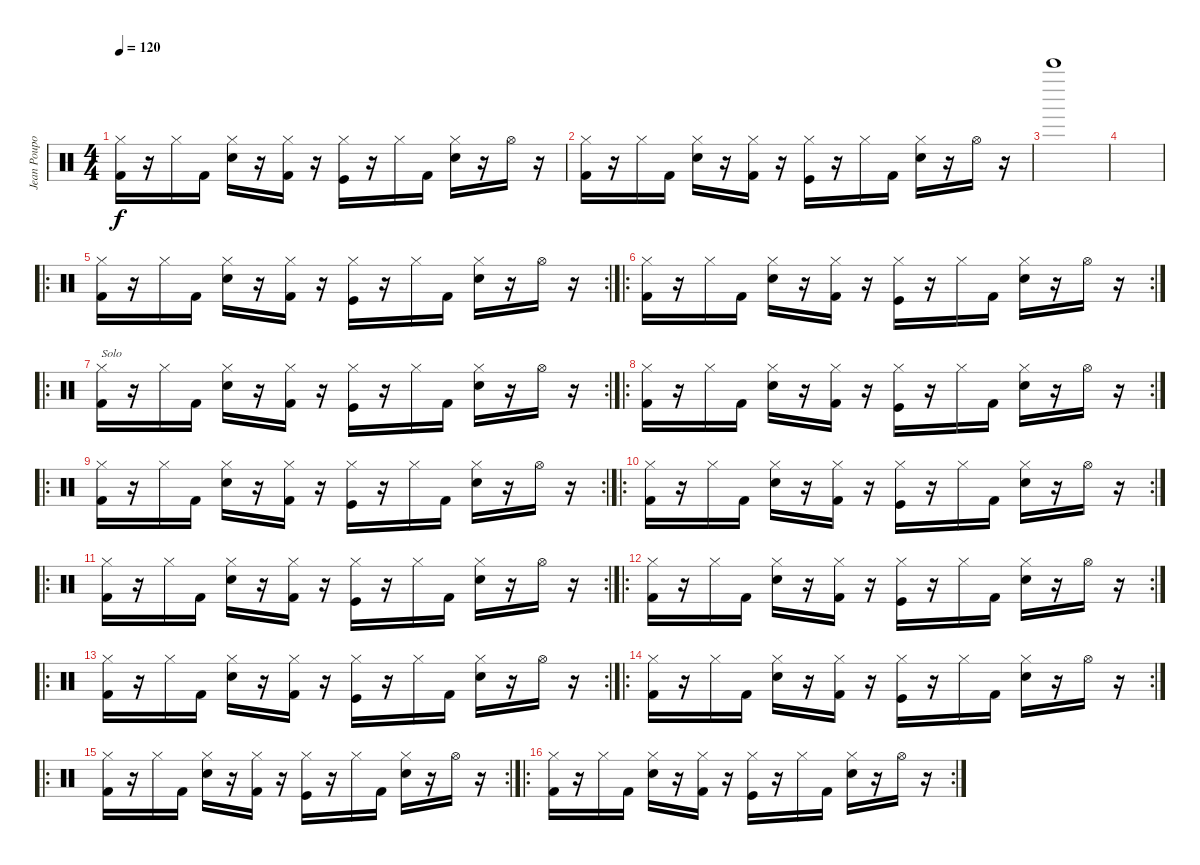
\track ("Jean Poupoutich" "Jean Poupo") {instrument percussion}
\staff {score}
\articulation defaults
\ts (4 4)
\tempo 120
\clef neutral
\ks c
("Hi-Hat (closed)" "Kick (hit) 2").16{dy f} r.16 "Hi-Hat (closed)".16 "Kick (hit) 2".16 ("Hi-Hat (closed)" "Snare (hit) 2").16 r.16 ("Hi-Hat (closed)" "Kick (hit) 2").16 r.16 ("Hi-Hat (closed)" "Kick (hit)").16 r.16 "Hi-Hat (closed)".16 "Kick (hit) 2".16 ("Hi-Hat (closed)" "Snare (hit) 2").16 r.16 "Hi-Hat (open)".16 r.16 |
("Hi-Hat (closed)" "Kick (hit) 2").16 r.16 "Hi-Hat (closed)".16 "Kick (hit) 2".16 ("Hi-Hat (closed)" "Snare (hit) 2").16 r.16 ("Hi-Hat (closed)" "Kick (hit) 2").16 r.16 ("Hi-Hat (closed)" "Kick (hit)").16 r.16 "Hi-Hat (closed)".16 "Kick (hit) 2".16 ("Hi-Hat (closed)" "Snare (hit) 2").16 r.16 "Hi-Hat (open)".16 r.16 |
"Bell Tree (hit)".1 |
|
\ro
\rc 2
("Hi-Hat (closed)" "Kick (hit) 2").16 r.16 "Hi-Hat (closed)".16 "Kick (hit) 2".16 ("Hi-Hat (closed)" "Snare (hit) 2").16 r.16 ("Hi-Hat (closed)" "Kick (hit) 2").16 r.16 ("Hi-Hat (closed)" "Kick (hit)").16 r.16 "Hi-Hat (closed)".16 "Kick (hit) 2".16 ("Hi-Hat (closed)" "Snare (hit) 2").16 r.16 "Hi-Hat (open)".16 r.16 |
\ro
\rc 2
("Hi-Hat (closed)" "Kick (hit) 2").16 r.16 "Hi-Hat (closed)".16 "Kick (hit) 2".16 ("Hi-Hat (closed)" "Snare (hit) 2").16 r.16 ("Hi-Hat (closed)" "Kick (hit) 2").16 r.16 ("Hi-Hat (closed)" "Kick (hit)").16 r.16 "Hi-Hat (closed)".16 "Kick (hit) 2".16 ("Hi-Hat (closed)" "Snare (hit) 2").16 r.16 "Hi-Hat (open)".16 r.16 |
\ro
\rc 2
("Hi-Hat (closed)" "Kick (hit) 2").16{txt "Solo"} r.16 "Hi-Hat (closed)".16 "Kick (hit) 2".16 ("Hi-Hat (closed)" "Snare (hit) 2").16 r.16 ("Hi-Hat (closed)" "Kick (hit) 2").16 r.16 ("Hi-Hat (closed)" "Kick (hit)").16 r.16 "Hi-Hat (closed)".16 "Kick (hit) 2".16 ("Hi-Hat (closed)" "Snare (hit) 2").16 r.16 "Hi-Hat (open)".16 r.16 |
\ro
\rc 2
("Hi-Hat (closed)" "Kick (hit) 2").16 r.16 "Hi-Hat (closed)".16 "Kick (hit) 2".16 ("Hi-Hat (closed)" "Snare (hit) 2").16 r.16 ("Hi-Hat (closed)" "Kick (hit) 2").16 r.16 ("Hi-Hat (closed)" "Kick (hit)").16 r.16 "Hi-Hat (closed)".16 "Kick (hit) 2".16 ("Hi-Hat (closed)" "Snare (hit) 2").16 r.16 "Hi-Hat (open)".16 r.16 |
\ro
\rc 2
("Hi-Hat (closed)" "Kick (hit) 2").16 r.16 "Hi-Hat (closed)".16 "Kick (hit) 2".16 ("Hi-Hat (closed)" "Snare (hit) 2").16 r.16 ("Hi-Hat (closed)" "Kick (hit) 2").16 r.16 ("Hi-Hat (closed)" "Kick (hit)").16 r.16 "Hi-Hat (closed)".16 "Kick (hit) 2".16 ("Hi-Hat (closed)" "Snare (hit) 2").16 r.16 "Hi-Hat (open)".16 r.16 |
\ro
\rc 2
("Hi-Hat (closed)" "Kick (hit) 2").16 r.16 "Hi-Hat (closed)".16 "Kick (hit) 2".16 ("Hi-Hat (closed)" "Snare (hit) 2").16 r.16 ("Hi-Hat (closed)" "Kick (hit) 2").16 r.16 ("Hi-Hat (closed)" "Kick (hit)").16 r.16 "Hi-Hat (closed)".16 "Kick (hit) 2".16 ("Hi-Hat (closed)" "Snare (hit) 2").16 r.16 "Hi-Hat (open)".16 r.16 |
\ro
\rc 2
("Hi-Hat (closed)" "Kick (hit) 2").16 r.16 "Hi-Hat (closed)".16 "Kick (hit) 2".16 ("Hi-Hat (closed)" "Snare (hit) 2").16 r.16 ("Hi-Hat (closed)" "Kick (hit) 2").16 r.16 ("Hi-Hat (closed)" "Kick (hit)").16 r.16 "Hi-Hat (closed)".16 "Kick (hit) 2".16 ("Hi-Hat (closed)" "Snare (hit) 2").16 r.16 "Hi-Hat (open)".16 r.16 |
\ro
\rc 2
("Hi-Hat (closed)" "Kick (hit) 2").16 r.16 "Hi-Hat (closed)".16 "Kick (hit) 2".16 ("Hi-Hat (closed)" "Snare (hit) 2").16 r.16 ("Hi-Hat (closed)" "Kick (hit) 2").16 r.16 ("Hi-Hat (closed)" "Kick (hit)").16 r.16 "Hi-Hat (closed)".16 "Kick (hit) 2".16 ("Hi-Hat (closed)" "Snare (hit) 2").16 r.16 "Hi-Hat (open)".16 r.16 |
\ro
\rc 2
("Hi-Hat (closed)" "Kick (hit) 2").16 r.16 "Hi-Hat (closed)".16 "Kick (hit) 2".16 ("Hi-Hat (closed)" "Snare (hit) 2").16 r.16 ("Hi-Hat (closed)" "Kick (hit) 2").16 r.16 ("Hi-Hat (closed)" "Kick (hit)").16 r.16 "Hi-Hat (closed)".16 "Kick (hit) 2".16 ("Hi-Hat (closed)" "Snare (hit) 2").16 r.16 "Hi-Hat (open)".16 r.16 |
\ro
\rc 2
("Hi-Hat (closed)" "Kick (hit) 2").16 r.16 "Hi-Hat (closed)".16 "Kick (hit) 2".16 ("Hi-Hat (closed)" "Snare (hit) 2").16 r.16 ("Hi-Hat (closed)" "Kick (hit) 2").16 r.16 ("Hi-Hat (closed)" "Kick (hit)").16 r.16 "Hi-Hat (closed)".16 "Kick (hit) 2".16 ("Hi-Hat (closed)" "Snare (hit) 2").16 r.16 "Hi-Hat (open)".16 r.16 |
\ro
\rc 2
("Hi-Hat (closed)" "Kick (hit) 2").16 r.16 "Hi-Hat (closed)".16 "Kick (hit) 2".16 ("Hi-Hat (closed)" "Snare (hit) 2").16 r.16 ("Hi-Hat (closed)" "Kick (hit) 2").16 r.16 ("Hi-Hat (closed)" "Kick (hit)").16 r.16 "Hi-Hat (closed)".16 "Kick (hit) 2".16 ("Hi-Hat (closed)" "Snare (hit) 2").16 r.16 "Hi-Hat (open)".16 r.16 |
\ro
\rc 2
("Hi-Hat (closed)" "Kick (hit) 2").16 r.16 "Hi-Hat (closed)".16 "Kick (hit) 2".16 ("Hi-Hat (closed)" "Snare (hit) 2").16 r.16 ("Hi-Hat (closed)" "Kick (hit) 2").16 r.16 ("Hi-Hat (closed)" "Kick (hit)").16 r.16 "Hi-Hat (closed)".16 "Kick (hit) 2".16 ("Hi-Hat (closed)" "Snare (hit) 2").16 r.16 "Hi-Hat (open)".16 r.16
